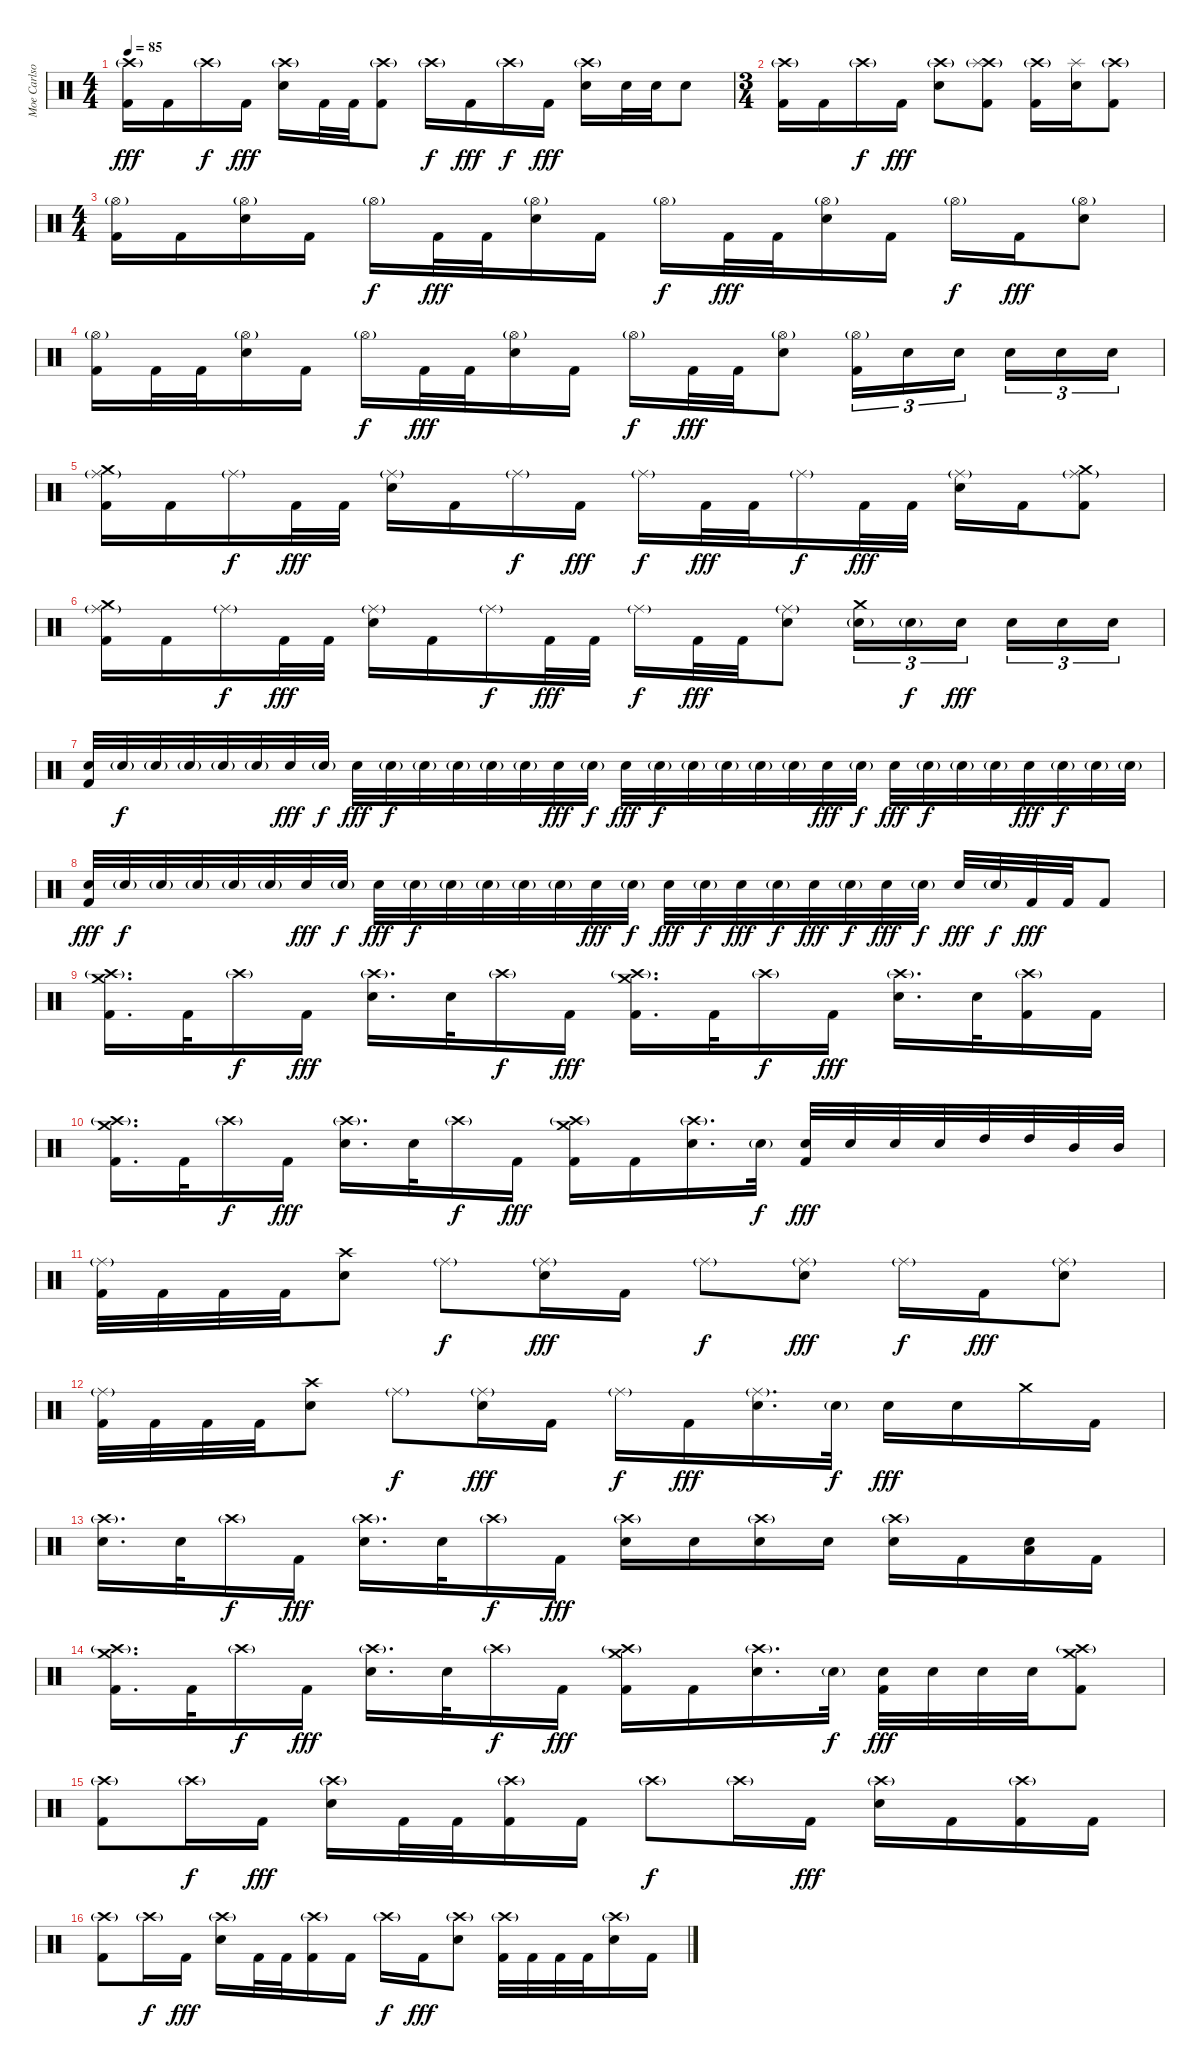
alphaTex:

\track ("Moe Carlson" "Moe Carlso") {instrument percussion}
\staff {score}
\articulation defaults
\ts (4 4)
\tempo 85
\clef neutral
\ks c
("Crash high (hit)"{g} "Kick (hit) 2").16{dy fff} "Kick (hit) 2".16 "Crash high (hit)"{g}.16{dy f} "Kick (hit) 2".16{dy fff} ("Crash high (hit)"{g} "Electric Snare (hit)").16 "Kick (hit) 2".32 "Kick (hit) 2".32 ("Crash high (hit)"{g} "Kick (hit) 2").8 "Crash high (hit)"{g}.16{dy f} "Kick (hit) 2".16{dy fff} "Crash high (hit)"{g}.16{dy f} "Kick (hit) 2".16{dy fff} ("Crash high (hit)"{g} "Electric Snare (hit)").16 "Electric Snare (hit)".32 "Electric Snare (hit)".32 "Electric Snare (hit)".8 |
\ts (3 4)
("Crash high (hit)"{g} "Kick (hit) 2").16 "Kick (hit) 2".16 "Crash high (hit)"{g}.16{dy f} "Kick (hit) 2".16{dy fff} ("Crash high (hit)"{g} "Electric Snare (hit)").8 ("Crash high (hit)"{g} "Splash (hit)" "Kick (hit) 2").8 ("Crash high (hit)"{g} "Kick (hit) 2").16 ("Splash (hit)" "Electric Snare (hit)").16 ("Crash high (hit)"{g} "Kick (hit) 2").8 |
\ts (4 4)
("Hi-Hat (open)"{g} "Kick (hit) 2").16 "Kick (hit) 2".16 ("Hi-Hat (open)"{g} "Electric Snare (hit)").16 "Kick (hit) 2".16 "Hi-Hat (open)"{g}.16{dy f} "Kick (hit) 2".32{dy fff} "Kick (hit) 2".32 ("Hi-Hat (open)"{g} "Electric Snare (hit)").16 "Kick (hit) 2".16 "Hi-Hat (open)"{g}.16{dy f} "Kick (hit) 2".32{dy fff} "Kick (hit) 2".32 ("Hi-Hat (open)"{g} "Electric Snare (hit)").16 "Kick (hit) 2".16 "Hi-Hat (open)"{g}.16{dy f} "Kick (hit) 2".16{dy fff} ("Hi-Hat (open)"{g} "Electric Snare (hit)").8 |
("Hi-Hat (open)"{g} "Kick (hit) 2").16 "Kick (hit) 2".32 "Kick (hit) 2".32 ("Hi-Hat (open)"{g} "Electric Snare (hit)").16 "Kick (hit) 2".16 "Hi-Hat (open)"{g}.16{dy f} "Kick (hit) 2".32{dy fff} "Kick (hit) 2".32 ("Hi-Hat (open)"{g} "Electric Snare (hit)").16 "Kick (hit) 2".16 "Hi-Hat (open)"{g}.16{dy f} "Kick (hit) 2".32{dy fff} "Kick (hit) 2".32 ("Hi-Hat (open)"{g} "Electric Snare (hit)").8 ("Hi-Hat (open)"{g} "Kick (hit) 2").16{tu (3 2)} "Electric Snare (hit)".16{tu (3 2)} "Electric Snare (hit)".16{tu (3 2) beam splitsecondary} "Electric Snare (hit)".16{tu (3 2)} "Electric Snare (hit)".16{tu (3 2)} "Electric Snare (hit)".16{tu (3 2)} |
("Crash medium (hit)" "Ride (middle)"{g} "Kick (hit) 2").16 "Kick (hit) 2".16 "Ride (middle)"{g}.16{dy f} "Kick (hit) 2".32{dy fff} "Kick (hit) 2".32 ("Ride (middle)"{g} "Electric Snare (hit)").16 "Kick (hit) 2".16 "Ride (middle)"{g}.16{dy f} "Kick (hit) 2".16{dy fff} "Ride (middle)"{g}.16{dy f} "Kick (hit) 2".32{dy fff} "Kick (hit) 2".32 "Ride (middle)"{g}.16{dy f} "Kick (hit) 2".32{dy fff} "Kick (hit) 2".32 ("Ride (middle)"{g} "Electric Snare (hit)").16 "Kick (hit) 2".16 ("Crash medium (hit)" "Ride (middle)"{g} "Kick (hit) 2").8 |
("Crash medium (hit)" "Ride (middle)"{g} "Kick (hit) 2").16 "Kick (hit) 2".16 "Ride (middle)"{g}.16{dy f} "Kick (hit) 2".32{dy fff} "Kick (hit) 2".32 ("Ride (middle)"{g} "Electric Snare (hit)").16 "Kick (hit) 2".16 "Ride (middle)"{g}.16{dy f} "Kick (hit) 2".32{dy fff} "Kick (hit) 2".32 "Ride (middle)"{g}.16{dy f} "Kick (hit) 2".32{dy fff} "Kick (hit) 2".32 ("Ride (middle)"{g} "Electric Snare (hit)").8 ("Crash medium (hit)" "Electric Snare (hit)"{g}).16{tu (3 2)} "Electric Snare (hit)"{g}.16{tu (3 2) dy f} "Electric Snare (hit)".16{tu (3 2) dy fff beam splitsecondary} "Electric Snare (hit)".16{tu (3 2)} "Electric Snare (hit)".16{tu (3 2)} "Electric Snare (hit)".16{tu (3 2)} |
("Electric Snare (hit)" "Kick (hit) 2").32 "Electric Snare (hit)"{g}.32{dy f} "Electric Snare (hit)"{g}.32 "Electric Snare (hit)"{g}.32 "Electric Snare (hit)"{g}.32 "Electric Snare (hit)"{g}.32 "Electric Snare (hit)".32{dy fff} "Electric Snare (hit)"{g}.32{dy f} "Electric Snare (hit)".32{dy fff} "Electric Snare (hit)"{g}.32{dy f} "Electric Snare (hit)"{g}.32 "Electric Snare (hit)"{g}.32 "Electric Snare (hit)"{g}.32 "Electric Snare (hit)"{g}.32 "Electric Snare (hit)".32{dy fff} "Electric Snare (hit)"{g}.32{dy f} "Electric Snare (hit)".32{dy fff} "Electric Snare (hit)"{g}.32{dy f} "Electric Snare (hit)"{g}.32 "Electric Snare (hit)"{g}.32 "Electric Snare (hit)"{g}.32 "Electric Snare (hit)"{g}.32 "Electric Snare (hit)".32{dy fff} "Electric Snare (hit)"{g}.32{dy f} "Electric Snare (hit)".32{dy fff} "Electric Snare (hit)"{g}.32{dy f} "Electric Snare (hit)"{g}.32 "Electric Snare (hit)"{g}.32 "Electric Snare (hit)".32{dy fff} "Electric Snare (hit)"{g}.32{dy f} "Electric Snare (hit)"{g}.32 "Electric Snare (hit)"{g}.32 |
("Electric Snare (hit)" "Kick (hit) 2").32{dy fff} "Electric Snare (hit)"{g}.32{dy f} "Electric Snare (hit)"{g}.32 "Electric Snare (hit)"{g}.32 "Electric Snare (hit)"{g}.32 "Electric Snare (hit)"{g}.32 "Electric Snare (hit)".32{dy fff} "Electric Snare (hit)"{g}.32{dy f} "Electric Snare (hit)".32{dy fff} "Electric Snare (hit)"{g}.32{dy f} "Electric Snare (hit)"{g}.32 "Electric Snare (hit)"{g}.32 "Electric Snare (hit)"{g}.32 "Electric Snare (hit)"{g}.32 "Electric Snare (hit)".32{dy fff} "Electric Snare (hit)"{g}.32{dy f} "Electric Snare (hit)".32{dy fff} "Electric Snare (hit)"{g}.32{dy f} "Electric Snare (hit)".32{dy fff} "Electric Snare (hit)"{g}.32{dy f} "Electric Snare (hit)".32{dy fff} "Electric Snare (hit)"{g}.32{dy f} "Electric Snare (hit)".32{dy fff} "Electric Snare (hit)"{g}.32{dy f} "Electric Snare (hit)".32{dy fff} "Electric Snare (hit)"{g}.32{dy f} "Kick (hit) 2".32{dy fff} "Kick (hit) 2".32 "Kick (hit) 2".8 |
("Crash high (hit)"{g} "Crash medium (hit)" "Kick (hit) 2").16{d} "Kick (hit) 2".32 "Crash high (hit)"{g}.16{dy f} "Kick (hit) 2".16{dy fff} ("Crash high (hit)"{g} "Electric Snare (hit)").16{d} "Electric Snare (hit)".32 "Crash high (hit)"{g}.16{dy f} "Kick (hit) 2".16{dy fff} ("Crash high (hit)"{g} "Crash medium (hit)" "Kick (hit) 2").16{d} "Kick (hit) 2".32 "Crash high (hit)"{g}.16{dy f} "Kick (hit) 2".16{dy fff} ("Crash high (hit)"{g} "Electric Snare (hit)").16{d} "Electric Snare (hit)".32 ("Crash high (hit)"{g} "Kick (hit) 2").16 "Kick (hit) 2".16 |
("Crash high (hit)"{g} "Crash medium (hit)" "Kick (hit) 2").16{d} "Kick (hit) 2".32 "Crash high (hit)"{g}.16{dy f} "Kick (hit) 2".16{dy fff} ("Crash high (hit)"{g} "Electric Snare (hit)").16{d} "Electric Snare (hit)".32 "Crash high (hit)"{g}.16{dy f} "Kick (hit) 2".16{dy fff} ("Crash high (hit)"{g} "Crash medium (hit)" "Kick (hit) 2").16 "Kick (hit) 2".16 ("Crash high (hit)"{g} "Electric Snare (hit)").16{d} "Electric Snare (hit)"{g}.32{dy f} ("Electric Snare (hit)" "Kick (hit) 2").32{dy fff} "Electric Snare (hit)".32 "Electric Snare (hit)".32 "Electric Snare (hit)".32 "High Tom (hit)".32 "High Tom (hit)".32 "Mid Tom (hit)".32 "Mid Tom (hit)".32 |
("Ride (middle)"{g} "Kick (hit) 2").32 "Kick (hit) 2".32 "Kick (hit) 2".32 "Kick (hit) 2".32 ("Crash high (hit)" "Electric Snare (hit)").8 "Ride (middle)"{g}.8{dy f} ("Ride (middle)"{g} "Electric Snare (hit)").16{dy fff} "Kick (hit) 2".16 "Ride (middle)"{g}.8{dy f} ("Ride (middle)"{g} "Electric Snare (hit)").8{dy fff} "Ride (middle)"{g}.16{dy f} "Kick (hit) 2".16{dy fff} ("Ride (middle)"{g} "Electric Snare (hit)").8 |
("Ride (middle)"{g} "Kick (hit) 2").32 "Kick (hit) 2".32 "Kick (hit) 2".32 "Kick (hit) 2".32 ("Crash high (hit)" "Electric Snare (hit)").8 "Ride (middle)"{g}.8{dy f} ("Ride (middle)"{g} "Electric Snare (hit)").16{dy fff} "Kick (hit) 2".16 "Ride (middle)"{g}.16{dy f} "Kick (hit) 2".16{dy fff} ("Ride (middle)"{g} "Electric Snare (hit)").16{d} "Electric Snare (hit)"{g}.32{dy f} "Electric Snare (hit)".16{dy fff} "Electric Snare (hit)".16 "Crash medium (hit)".16 "Kick (hit) 2".16 |
("Crash high (hit)"{g} "Electric Snare (hit)").16{d} "Electric Snare (hit)".32 "Crash high (hit)"{g}.16{dy f} "Kick (hit) 2".16{dy fff} ("Crash high (hit)"{g} "Electric Snare (hit)").16{d} "Electric Snare (hit)".32 "Crash high (hit)"{g}.16{dy f} "Kick (hit) 2".16{dy fff} ("Crash high (hit)"{g} "Electric Snare (hit)").16 "Electric Snare (hit)".16 ("Crash high (hit)"{g} "Electric Snare (hit)").16 "Electric Snare (hit)".16 ("Crash high (hit)"{g} "Electric Snare (hit)").16 "Kick (hit) 2".16 ("Electric Snare (hit)" "Low Floor Tom (hit)").16 "Kick (hit) 2".16 |
("Crash high (hit)"{g} "Crash medium (hit)" "Kick (hit) 2").16{d} "Kick (hit) 2".32 "Crash high (hit)"{g}.16{dy f} "Kick (hit) 2".16{dy fff} ("Crash high (hit)"{g} "Electric Snare (hit)").16{d} "Electric Snare (hit)".32 "Crash high (hit)"{g}.16{dy f} "Kick (hit) 2".16{dy fff} ("Crash high (hit)"{g} "Crash medium (hit)" "Kick (hit) 2").16 "Kick (hit) 2".16 ("Crash high (hit)"{g} "Electric Snare (hit)").16{d} "Electric Snare (hit)"{g}.32{dy f} ("Electric Snare (hit)" "Kick (hit) 2").32{dy fff} "Electric Snare (hit)".32 "Electric Snare (hit)".32 "Electric Snare (hit)".32 ("Crash high (hit)"{g} "Crash medium (hit)" "Kick (hit) 2").8 |
("Crash high (hit)"{g} "Kick (hit) 2").8 "Crash high (hit)"{g}.16{dy f} "Kick (hit) 2".16{dy fff} ("Crash high (hit)"{g} "Electric Snare (hit)").16 "Kick (hit) 2".32 "Kick (hit) 2".32 ("Crash high (hit)"{g} "Kick (hit) 2").16 "Kick (hit) 2".16 "Crash high (hit)"{g}.8{dy f} "Crash high (hit)"{g}.16 "Kick (hit) 2".16{dy fff} ("Crash high (hit)"{g} "Electric Snare (hit)").16 "Kick (hit) 2".16 ("Crash high (hit)"{g} "Kick (hit) 2").16 "Kick (hit) 2".16 |
("Crash high (hit)"{g} "Kick (hit) 2").8 "Crash high (hit)"{g}.16{dy f} "Kick (hit) 2".16{dy fff} ("Crash high (hit)"{g} "Electric Snare (hit)").16 "Kick (hit) 2".32 "Kick (hit) 2".32 ("Crash high (hit)"{g} "Kick (hit) 2").16 "Kick (hit) 2".16 "Crash high (hit)"{g}.16{dy f} "Kick (hit) 2".16{dy fff} ("Crash high (hit)"{g} "Electric Snare (hit)").8 ("Crash high (hit)"{g} "Kick (hit) 2").32 "Kick (hit) 2".32 "Kick (hit) 2".32 "Kick (hit) 2".32 ("Crash high (hit)"{g} "Electric Snare (hit)").16 "Kick (hit) 2".16
